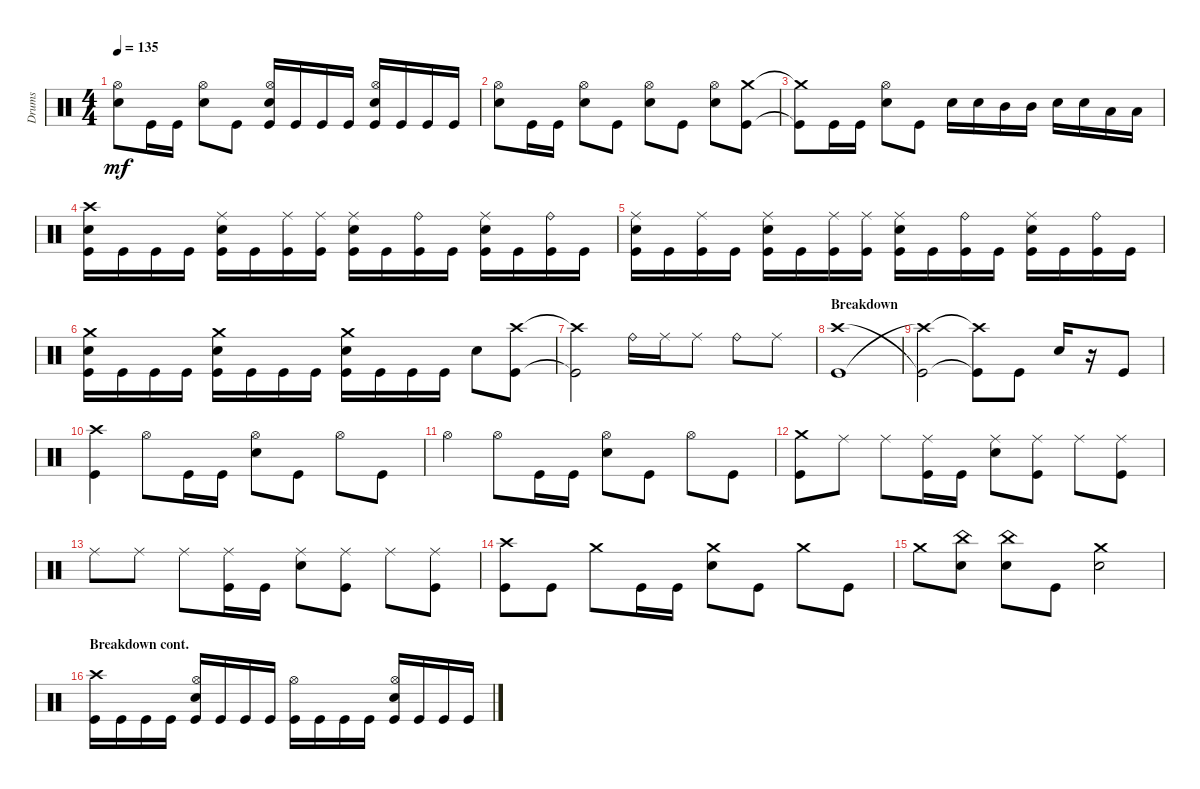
\track ("Drums" "Drums") {instrument percussion}
\staff {score}
\articulation defaults
\ts (4 4)
\tempo 135
\clef neutral
\ks aminor
("Snare (hit) 2" "Hi-Hat (open)").8{dy mf} "Kick (hit)".16 "Kick (hit)".16 ("Snare (hit) 2" "Hi-Hat (open)").8 "Kick (hit)".8 ("Snare (hit) 2" "Kick (hit)" "Hi-Hat (open)").16 "Kick (hit)".16 "Kick (hit)".16 "Kick (hit)".16 ("Hi-Hat (open)" "Snare (hit) 2" "Kick (hit)").16 "Kick (hit)".16 "Kick (hit)".16 "Kick (hit)".16 |
("Hi-Hat (open)" "Snare (hit) 2").8 "Kick (hit)".16 "Kick (hit)".16 ("Hi-Hat (open)" "Snare (hit) 2").8 "Kick (hit)".8 ("Snare (hit) 2" "Hi-Hat (open)").8 "Kick (hit)".8 ("Snare (hit) 2" "Hi-Hat (open)").8 ("Kick (hit)" "Crash medium (hit)").8 |
("Kick (hit)"{t} "Crash medium (hit)"{t}).8 "Kick (hit)".16 "Kick (hit)".16 ("Hi-Hat (open)" "Snare (hit) 2").8 "Kick (hit)".8 "Snare (hit) 2".16 "Snare (hit) 2".16 "Mid Tom (hit)".16 "Mid Tom (hit)".16 "Snare (hit) 2".16 "Snare (hit) 2".16 "Low Tom (hit)".16 "Low Tom (hit)".16 |
("Snare (hit) 2" "Kick (hit)" "Crash high (hit)").16 "Kick (hit)".16 "Kick (hit)".16 "Kick (hit)".16 ("Kick (hit)" "Ride (middle)" "Snare (hit) 2").16 "Kick (hit)".16 ("Kick (hit)" "Ride (middle)").16 ("Kick (hit)" "Ride (middle)").16 ("Snare (hit) 2" "Ride (middle)" "Kick (hit)").16 "Kick (hit)".16 ("Kick (hit)" "Ride (bell)").16 "Kick (hit)".16 ("Ride (middle)" "Kick (hit)" "Snare (hit) 2").16 "Kick (hit)".16 ("Kick (hit)" "Ride (bell)").16 "Kick (hit)".16 |
("Kick (hit)" "Ride (middle)" "Snare (hit) 2").16 "Kick (hit)".16 ("Ride (middle)" "Kick (hit)").16 "Kick (hit)".16 ("Ride (middle)" "Snare (hit) 2" "Kick (hit)").16 "Kick (hit)".16 ("Kick (hit)" "Ride (middle)").16 ("Ride (middle)" "Kick (hit)").16 ("Snare (hit) 2" "Kick (hit)" "Ride (middle)").16 "Kick (hit)".16 ("Ride (bell)" "Kick (hit)").16 "Kick (hit)".16 ("Kick (hit)" "Snare (hit) 2" "Ride (middle)").16 "Kick (hit)".16 ("Ride (bell)" "Kick (hit)").16 "Kick (hit)".16 |
("Snare (hit) 2" "Crash medium (hit)" "Kick (hit)").16 "Kick (hit)".16 "Kick (hit)".16 "Kick (hit)".16 ("Snare (hit) 2" "Kick (hit)" "Crash medium (hit)").16 "Kick (hit)".16 "Kick (hit)".16 "Kick (hit)".16 ("Kick (hit)" "Snare (hit) 2" "Crash medium (hit)").16 "Kick (hit)".16 "Kick (hit)".16 "Kick (hit)".16 "Snare (hit) 2".8 ("Crash high (hit)" "Kick (hit)").8 |
("Crash high (hit)"{t} "Kick (hit)"{t}).2 "Ride (bell)".16 "Ride (middle)".16 "Ride (middle)".8 "Ride (bell)".8 "Ride (middle)".8 |
\section ("" "Breakdown")
("Crash high (hit)" "Kick (hit)").1 |
("Kick (hit)"{t} "Crash high (hit)"{t}).2 ("Kick (hit)"{t} "Crash high (hit)"{t}).8 "Kick (hit)".8 "Snare (hit) 2".16 r.16 "Kick (hit)".8 |
("Kick (hit)" "Crash high (hit)").4 "Hi-Hat (open)".8 "Kick (hit)".16 "Kick (hit)".16 ("Snare (hit) 2" "Hi-Hat (open)").8 "Kick (hit)".8 "Hi-Hat (open)".8 "Kick (hit)".8 |
"Hi-Hat (open)".4 "Hi-Hat (open)".8 "Kick (hit)".16 "Kick (hit)".16 ("Hi-Hat (open)" "Snare (hit) 2").8 "Kick (hit)".8 "Hi-Hat (open)".8 "Kick (hit)".8 |
("Crash medium (hit)" "Kick (hit)").8 "Ride (middle)".8 "Ride (middle)".8 ("Kick (hit)" "Ride (middle)").16 "Kick (hit)".16 ("Snare (hit) 2" "Ride (middle)").8 ("Kick (hit)" "Ride (middle)").8 "Ride (middle)".8 ("Ride (middle)" "Kick (hit)").8 |
"Ride (middle)".8 "Ride (middle)".8 "Ride (middle)".8 ("Ride (middle)" "Kick (hit)").16 "Kick (hit)".16 ("Ride (middle)" "Snare (hit) 2").8 ("Kick (hit)" "Ride (middle)").8 "Ride (middle)".8 ("Kick (hit)" "Ride (middle)").8 |
("Crash high (hit)" "Kick (hit)").8 "Kick (hit)".8 "Crash medium (hit)".8 "Kick (hit)".16 "Kick (hit)".16 ("Crash medium (hit)" "Snare (hit) 2").8 "Kick (hit)".8 "Crash medium (hit)".8 "Kick (hit)".8 |
"Crash medium (hit)".8 ("China (hit)" "Snare (hit) 2").8 ("Snare (hit) 2" "China (hit)").8 "Kick (hit)".8 ("Crash medium (hit)" "Snare (hit) 2").2 |
\section ("" "Breakdown cont.")
("Kick (hit)" "Crash high (hit)").16 "Kick (hit)".16 "Kick (hit)".16 "Kick (hit)".16 ("Kick (hit)" "Hi-Hat (open)" "Snare (hit) 2").16 "Kick (hit)".16 "Kick (hit)".16 "Kick (hit)".16 ("Kick (hit)" "Hi-Hat (open)").16 "Kick (hit)".16 "Kick (hit)".16 "Kick (hit)".16 ("Kick (hit)" "Hi-Hat (open)" "Snare (hit) 2").16 "Kick (hit)".16 "Kick (hit)".16 "Kick (hit)".16
